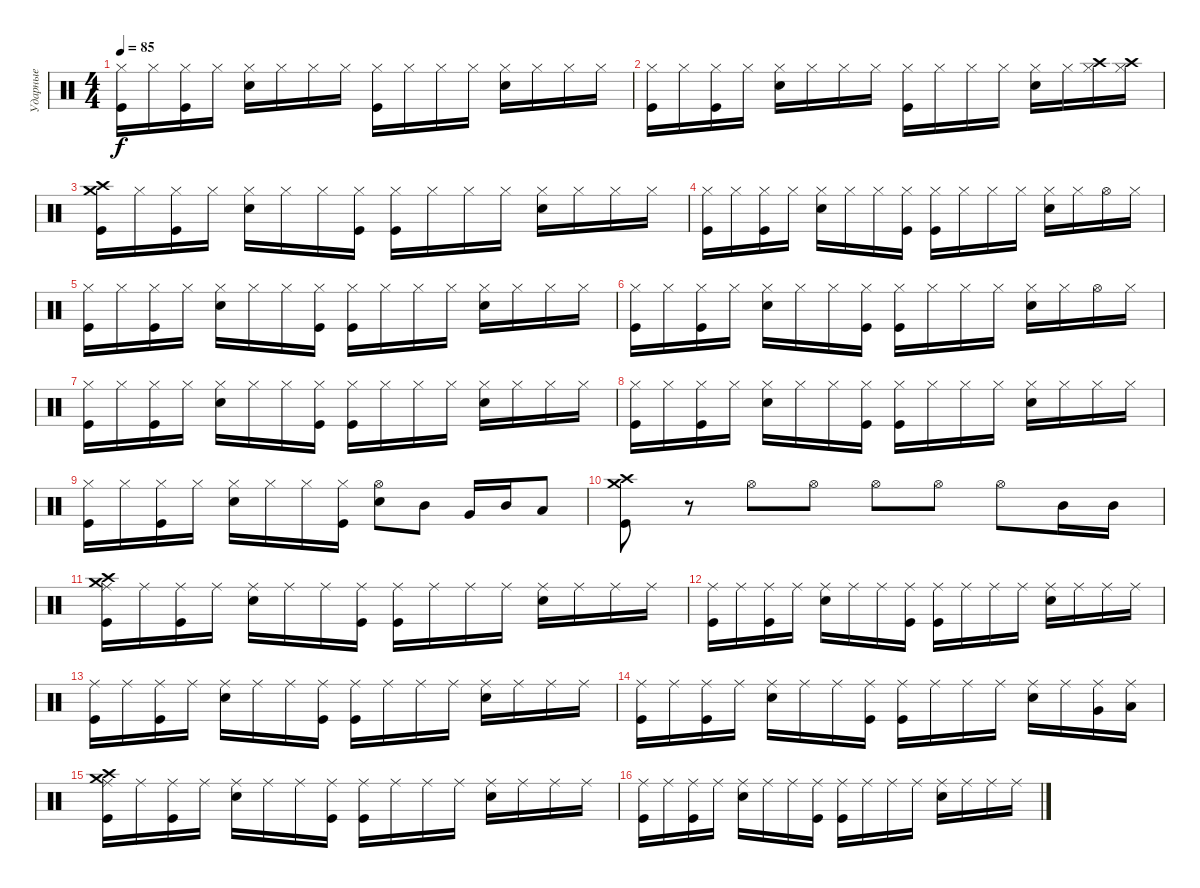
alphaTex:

\track ("Ударные" "Ударные") {instrument percussion}
\staff {score}
\articulation defaults
\ts (4 4)
\tempo 85
\clef neutral
\ks c
("Hi-Hat (closed)" "Kick (hit)").16{dy f} "Hi-Hat (closed)".16 ("Hi-Hat (closed)" "Kick (hit)").16 "Hi-Hat (closed)".16 ("Hi-Hat (closed)" "Electric Snare (hit)").16 "Hi-Hat (closed)".16 "Hi-Hat (closed)".16 "Hi-Hat (closed)".16 ("Hi-Hat (closed)" "Kick (hit)").16 "Hi-Hat (closed)".16 "Hi-Hat (closed)".16 "Hi-Hat (closed)".16 ("Hi-Hat (closed)" "Electric Snare (hit)").16 "Hi-Hat (closed)".16 "Hi-Hat (closed)".16 "Hi-Hat (closed)".16 |
("Hi-Hat (closed)" "Kick (hit)").16 "Hi-Hat (closed)".16 ("Hi-Hat (closed)" "Kick (hit)").16 "Hi-Hat (closed)".16 ("Hi-Hat (closed)" "Electric Snare (hit)").16 "Hi-Hat (closed)".16 "Hi-Hat (closed)".16 "Hi-Hat (closed)".16 ("Hi-Hat (closed)" "Kick (hit)").16 "Hi-Hat (closed)".16 "Hi-Hat (closed)".16 "Hi-Hat (closed)".16 ("Hi-Hat (closed)" "Electric Snare (hit)").16 "Hi-Hat (closed)".16 ("Crash high (hit)" "Hi-Hat (closed)").16 ("Crash high (hit)" "Hi-Hat (closed)").16 |
("Crash high (hit)" "Crash medium (hit)" "Kick (hit)").16 "Hi-Hat (closed)".16 ("Hi-Hat (closed)" "Kick (hit)").16 "Hi-Hat (closed)".16 ("Hi-Hat (closed)" "Electric Snare (hit)").16 "Hi-Hat (closed)".16 "Hi-Hat (closed)".16 ("Hi-Hat (closed)" "Kick (hit)").16 ("Hi-Hat (closed)" "Kick (hit)").16 "Hi-Hat (closed)".16 "Hi-Hat (closed)".16 "Hi-Hat (closed)".16 ("Hi-Hat (closed)" "Electric Snare (hit)").16 "Hi-Hat (closed)".16 "Hi-Hat (closed)".16 "Hi-Hat (closed)".16 |
("Hi-Hat (closed)" "Kick (hit)").16 "Hi-Hat (closed)".16 ("Hi-Hat (closed)" "Kick (hit)").16 "Hi-Hat (closed)".16 ("Hi-Hat (closed)" "Electric Snare (hit)").16 "Hi-Hat (closed)".16 "Hi-Hat (closed)".16 ("Hi-Hat (closed)" "Kick (hit)").16 ("Hi-Hat (closed)" "Kick (hit)").16 "Hi-Hat (closed)".16 "Hi-Hat (closed)".16 "Hi-Hat (closed)".16 ("Hi-Hat (closed)" "Electric Snare (hit)").16 "Hi-Hat (closed)".16 "Hi-Hat (open)".16 "Hi-Hat (closed)".16 |
("Hi-Hat (closed)" "Kick (hit)").16 "Hi-Hat (closed)".16 ("Hi-Hat (closed)" "Kick (hit)").16 "Hi-Hat (closed)".16 ("Hi-Hat (closed)" "Electric Snare (hit)").16 "Hi-Hat (closed)".16 "Hi-Hat (closed)".16 ("Hi-Hat (closed)" "Kick (hit)").16 ("Hi-Hat (closed)" "Kick (hit)").16 "Hi-Hat (closed)".16 "Hi-Hat (closed)".16 "Hi-Hat (closed)".16 ("Hi-Hat (closed)" "Electric Snare (hit)").16 "Hi-Hat (closed)".16 "Hi-Hat (closed)".16 "Hi-Hat (closed)".16 |
("Hi-Hat (closed)" "Kick (hit)").16 "Hi-Hat (closed)".16 ("Hi-Hat (closed)" "Kick (hit)").16 "Hi-Hat (closed)".16 ("Hi-Hat (closed)" "Electric Snare (hit)").16 "Hi-Hat (closed)".16 "Hi-Hat (closed)".16 ("Hi-Hat (closed)" "Kick (hit)").16 ("Hi-Hat (closed)" "Kick (hit)").16 "Hi-Hat (closed)".16 "Hi-Hat (closed)".16 "Hi-Hat (closed)".16 ("Hi-Hat (closed)" "Electric Snare (hit)").16 "Hi-Hat (closed)".16 "Hi-Hat (open)".16 "Hi-Hat (closed)".16 |
("Hi-Hat (closed)" "Kick (hit)").16 "Hi-Hat (closed)".16 ("Hi-Hat (closed)" "Kick (hit)").16 "Hi-Hat (closed)".16 ("Hi-Hat (closed)" "Electric Snare (hit)").16 "Hi-Hat (closed)".16 "Hi-Hat (closed)".16 ("Hi-Hat (closed)" "Kick (hit)").16 ("Hi-Hat (closed)" "Kick (hit)").16 "Hi-Hat (closed)".16 "Hi-Hat (closed)".16 "Hi-Hat (closed)".16 ("Hi-Hat (closed)" "Electric Snare (hit)").16 "Hi-Hat (closed)".16 "Hi-Hat (closed)".16 "Hi-Hat (closed)".16 |
("Hi-Hat (closed)" "Kick (hit)").16 "Hi-Hat (closed)".16 ("Hi-Hat (closed)" "Kick (hit)").16 "Hi-Hat (closed)".16 ("Hi-Hat (closed)" "Electric Snare (hit)").16 "Hi-Hat (closed)".16 "Hi-Hat (closed)".16 ("Hi-Hat (closed)" "Kick (hit)").16 ("Hi-Hat (closed)" "Kick (hit)").16 "Hi-Hat (closed)".16 "Hi-Hat (closed)".16 "Hi-Hat (closed)".16 ("Hi-Hat (closed)" "Electric Snare (hit)").16 "Hi-Hat (closed)".16 "Hi-Hat (closed)".16 "Hi-Hat (closed)".16 |
("Hi-Hat (closed)" "Kick (hit)").16 "Hi-Hat (closed)".16 ("Hi-Hat (closed)" "Kick (hit)").16 "Hi-Hat (closed)".16 ("Hi-Hat (closed)" "Electric Snare (hit)").16 "Hi-Hat (closed)".16 "Hi-Hat (closed)".16 ("Hi-Hat (closed)" "Kick (hit)").16 ("Hi-Hat (open)" "Electric Snare (hit)").8 "Mid Tom (hit)".8 "Very Low Tom (hit)".16 "Mid Tom (hit)".16 "Low Floor Tom (hit)".8 |
("Crash medium (hit)" "Crash high (hit)" "Kick (hit)").8 r.8 "Hi-Hat (open)".8 "Hi-Hat (open)".8 "Hi-Hat (open)".8 "Hi-Hat (open)".8 "Hi-Hat (open)".8 "Mid Tom (hit)".16 "Mid Tom (hit)".16 |
("Crash high (hit)" "Crash medium (hit)" "Ride (middle)" "Kick (hit)").16 "Ride (middle)".16 ("Ride (middle)" "Kick (hit)").16 "Ride (middle)".16 ("Ride (middle)" "Electric Snare (hit)").16 "Ride (middle)".16 "Ride (middle)".16 ("Ride (middle)" "Kick (hit)").16 ("Ride (middle)" "Kick (hit)").16 "Ride (middle)".16 "Ride (middle)".16 "Ride (middle)".16 ("Ride (middle)" "Electric Snare (hit)").16 "Ride (middle)".16 "Ride (middle)".16 "Ride (middle)".16 |
("Ride (middle)" "Kick (hit)").16 "Ride (middle)".16 ("Ride (middle)" "Kick (hit)").16 "Ride (middle)".16 ("Ride (middle)" "Electric Snare (hit)").16 "Ride (middle)".16 "Ride (middle)".16 ("Ride (middle)" "Kick (hit)").16 ("Ride (middle)" "Kick (hit)").16 "Ride (middle)".16 "Ride (middle)".16 "Ride (middle)".16 ("Ride (middle)" "Electric Snare (hit)").16 "Ride (middle)".16 "Ride (middle)".16 "Ride (middle)".16 |
("Ride (middle)" "Kick (hit)").16 "Ride (middle)".16 ("Ride (middle)" "Kick (hit)").16 "Ride (middle)".16 ("Ride (middle)" "Electric Snare (hit)").16 "Ride (middle)".16 "Ride (middle)".16 ("Ride (middle)" "Kick (hit)").16 ("Ride (middle)" "Kick (hit)").16 "Ride (middle)".16 "Ride (middle)".16 "Ride (middle)".16 ("Ride (middle)" "Electric Snare (hit)").16 "Ride (middle)".16 "Ride (middle)".16 "Ride (middle)".16 |
("Ride (middle)" "Kick (hit)").16 "Ride (middle)".16 ("Ride (middle)" "Kick (hit)").16 "Ride (middle)".16 ("Ride (middle)" "Electric Snare (hit)").16 "Ride (middle)".16 "Ride (middle)".16 ("Ride (middle)" "Kick (hit)").16 ("Ride (middle)" "Kick (hit)").16 "Ride (middle)".16 "Ride (middle)".16 "Ride (middle)".16 ("Ride (middle)" "Electric Snare (hit)").16 "Ride (middle)".16 ("Ride (middle)" "Very Low Tom (hit)").16 ("Ride (middle)" "Low Floor Tom (hit)").16 |
("Crash high (hit)" "Crash medium (hit)" "Ride (middle)" "Kick (hit)").16 "Ride (middle)".16 ("Ride (middle)" "Kick (hit)").16 "Ride (middle)".16 ("Ride (middle)" "Electric Snare (hit)").16 "Ride (middle)".16 "Ride (middle)".16 ("Ride (middle)" "Kick (hit)").16 ("Ride (middle)" "Kick (hit)").16 "Ride (middle)".16 "Ride (middle)".16 "Ride (middle)".16 ("Ride (middle)" "Electric Snare (hit)").16 "Ride (middle)".16 "Ride (middle)".16 "Ride (middle)".16 |
("Ride (middle)" "Kick (hit)").16 "Ride (middle)".16 ("Ride (middle)" "Kick (hit)").16 "Ride (middle)".16 ("Ride (middle)" "Electric Snare (hit)").16 "Ride (middle)".16 "Ride (middle)".16 ("Ride (middle)" "Kick (hit)").16 ("Ride (middle)" "Kick (hit)").16 "Ride (middle)".16 "Ride (middle)".16 "Ride (middle)".16 ("Ride (middle)" "Electric Snare (hit)").16 "Ride (middle)".16 "Ride (middle)".16 "Ride (middle)".16
